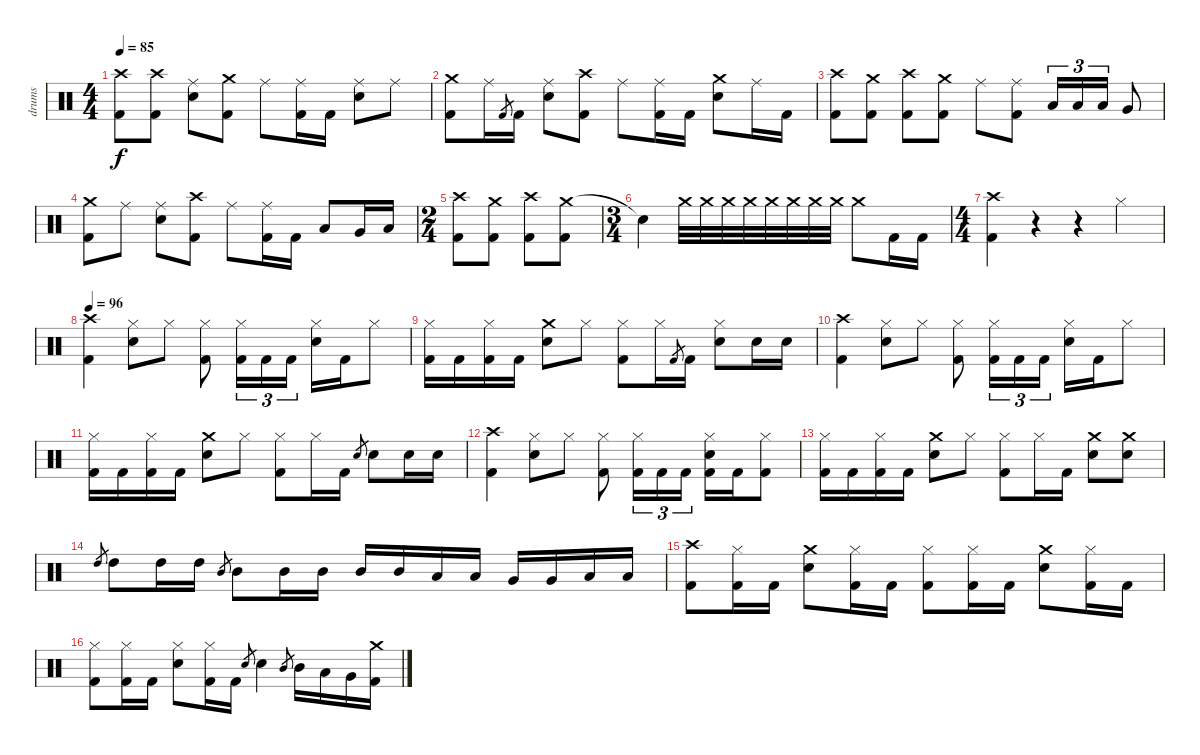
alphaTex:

\track ("drums" "drums") {instrument percussion}
\staff {score}
\articulation defaults
\ts (4 4)
\tempo 85
\clef neutral
\ks c
("Crash high (hit)" "Kick (hit) 2").8{dy f} ("Crash high (hit)" "Kick (hit) 2").8 ("Ride (middle)" "Electric Snare (hit)").8 ("Crash medium (hit)" "Kick (hit) 2").8 "Ride (middle)".8 ("Ride (middle)" "Kick (hit) 2").16 "Kick (hit) 2".16 ("Ride (middle)" "Electric Snare (hit)").8 "Ride (middle)".8 |
("Crash medium (hit)" "Kick (hit) 2").8 "Ride (middle)".16 "Kick (hit) 2".8{gr} "Kick (hit) 2".16 ("Ride (middle)" "Electric Snare (hit)").8 ("Crash high (hit)" "Kick (hit) 2").8 "Ride (middle)".8 ("Ride (middle)" "Kick (hit) 2").16 "Kick (hit) 2".16 ("Crash medium (hit)" "Electric Snare (hit)").8 "Ride (middle)".16 "Kick (hit) 2".16 |
("Crash high (hit)" "Kick (hit) 2").8 ("Crash medium (hit)" "Kick (hit) 2").8 ("Crash high (hit)" "Kick (hit) 2").8 ("Crash medium (hit)" "Kick (hit) 2").8 "Ride (middle)".8 ("Ride (middle)" "Kick (hit) 2").8 "Low Tom (hit)".16{tu (3 2)} "Low Tom (hit)".16{tu (3 2)} "Low Tom (hit)".16{tu (3 2)} "Very Low Tom (hit)".8 |
("Crash medium (hit)" "Kick (hit) 2").8 "Ride (middle)".8 ("Ride (middle)" "Electric Snare (hit)").8 ("Crash high (hit)" "Kick (hit) 2").8 "Ride (middle)".8 ("Ride (middle)" "Kick (hit) 2").16 "Kick (hit) 2".16 "Low Tom (hit)".8 "Very Low Tom (hit)".16 "Low Floor Tom (hit)".16 |
\ts (2 4)
("Crash high (hit)" "Kick (hit) 2").8 ("Crash medium (hit)" "Kick (hit) 2").8 ("Crash high (hit)" "Kick (hit) 2").8 ("Crash medium (hit)" "Kick (hit) 2").8 |
\ts (3 4)
"Snare (hit)"{t}.4 "Crash medium (hit)".32 "Crash medium (hit)".32 "Crash medium (hit)".32 "Crash medium (hit)".32 "Crash medium (hit)".32 "Crash medium (hit)".32 "Crash medium (hit)".32 "Crash medium (hit)".32 "Crash medium (hit)".8 "Kick (hit) 2".16 "Kick (hit) 2".16 |
\ts (4 4)
("Crash high (hit)" "Kick (hit) 2").4 r.4 r.4 "Hi-Hat (closed)".4 |
\tempo 96
("Crash high (hit)" "Kick (hit) 2").4 ("Hi-Hat (closed)" "Electric Snare (hit)").8 "Hi-Hat (closed)".8 ("Hi-Hat (closed)" "Kick (hit) 2").8 ("Hi-Hat (closed)" "Kick (hit) 2").16{tu (3 2)} "Kick (hit) 2".16{tu (3 2)} "Kick (hit) 2".16{tu (3 2)} ("Hi-Hat (closed)" "Electric Snare (hit)").16 "Kick (hit) 2".16 "Hi-Hat (closed)".8 |
("Hi-Hat (closed)" "Kick (hit) 2").16 "Kick (hit) 2".16 ("Hi-Hat (closed)" "Kick (hit) 2").16 "Kick (hit) 2".16 ("Crash medium (hit)" "Electric Snare (hit)").8 "Hi-Hat (closed)".8 ("Hi-Hat (closed)" "Kick (hit) 2").8 "Hi-Hat (closed)".16 "Kick (hit) 2".8{gr} "Kick (hit) 2".16 ("Hi-Hat (closed)" "Electric Snare (hit)").8 "Electric Snare (hit)".16 "Electric Snare (hit)".16 |
("Crash high (hit)" "Kick (hit) 2").4 ("Hi-Hat (closed)" "Electric Snare (hit)").8 "Hi-Hat (closed)".8 ("Hi-Hat (closed)" "Kick (hit) 2").8 ("Hi-Hat (closed)" "Kick (hit) 2").16{tu (3 2)} "Kick (hit) 2".16{tu (3 2)} "Kick (hit) 2".16{tu (3 2)} ("Hi-Hat (closed)" "Electric Snare (hit)").16 "Kick (hit) 2".16 "Hi-Hat (closed)".8 |
("Hi-Hat (closed)" "Kick (hit) 2").16 "Kick (hit) 2".16 ("Hi-Hat (closed)" "Kick (hit) 2").16 "Kick (hit) 2".16 ("Crash medium (hit)" "Electric Snare (hit)").8 "Hi-Hat (closed)".8 ("Hi-Hat (closed)" "Kick (hit) 2").8 "Hi-Hat (closed)".16 "Kick (hit) 2".16 "Electric Snare (hit)".8{gr} "Electric Snare (hit)".8 "Electric Snare (hit)".16 "Electric Snare (hit)".16 |
("Crash high (hit)" "Kick (hit) 2").4 ("Hi-Hat (closed)" "Electric Snare (hit)").8 "Hi-Hat (closed)".8 ("Hi-Hat (closed)" "Kick (hit) 2").8 ("Hi-Hat (closed)" "Kick (hit) 2").16{tu (3 2)} "Kick (hit) 2".16{tu (3 2)} "Kick (hit) 2".16{tu (3 2)} ("Hi-Hat (closed)" "Electric Snare (hit)" "Kick (hit) 2").16 "Kick (hit) 2".16 ("Hi-Hat (closed)" "Kick (hit) 2").8 |
("Hi-Hat (closed)" "Kick (hit) 2").16 "Kick (hit) 2".16 ("Hi-Hat (closed)" "Kick (hit) 2").16 "Kick (hit) 2".16 ("Crash medium (hit)" "Electric Snare (hit)").8 "Hi-Hat (closed)".8 ("Hi-Hat (closed)" "Kick (hit) 2").8 "Hi-Hat (closed)".16 "Kick (hit) 2".16 ("Crash medium (hit)" "Electric Snare (hit)").8 ("Crash medium (hit)" "Electric Snare (hit)").8 |
"High Tom (hit)".8{gr} "High Tom (hit)".8 "High Tom (hit)".16 "High Tom (hit)".16 "Mid Tom (hit)".8{gr} "Mid Tom (hit)".8 "Mid Tom (hit)".16 "Mid Tom (hit)".16 "Mid Tom (hit)".16 "Mid Tom (hit)".16 "Low Tom (hit)".16 "Low Tom (hit)".16 "Very Low Tom (hit)".16 "Very Low Tom (hit)".16 "Low Floor Tom (hit)".16 "Low Floor Tom (hit)".16 |
("Crash high (hit)" "Kick (hit) 2").8 ("Hi-Hat (closed)" "Kick (hit) 2").16 "Kick (hit) 2".16 ("Crash medium (hit)" "Electric Snare (hit)").8 ("Hi-Hat (closed)" "Kick (hit) 2").16 "Kick (hit) 2".16 ("Hi-Hat (closed)" "Kick (hit) 2").8 ("Hi-Hat (closed)" "Kick (hit) 2").16 "Kick (hit) 2".16 ("Crash medium (hit)" "Electric Snare (hit)").8 ("Hi-Hat (closed)" "Kick (hit) 2").16 "Kick (hit) 2".16 |
("Hi-Hat (closed)" "Kick (hit) 2").8 ("Hi-Hat (closed)" "Kick (hit) 2").16 "Kick (hit) 2".16 ("Hi-Hat (closed)" "Electric Snare (hit)").8 ("Hi-Hat (closed)" "Kick (hit) 2").16 "Kick (hit) 2".16 "Electric Snare (hit)".8{gr} "Electric Snare (hit)".4 "Mid Tom (hit)".8{gr} "Mid Tom (hit)".16 "Low Tom (hit)".16 "Very Low Tom (hit)".16 ("Crash medium (hit)" "Kick (hit) 2").16
